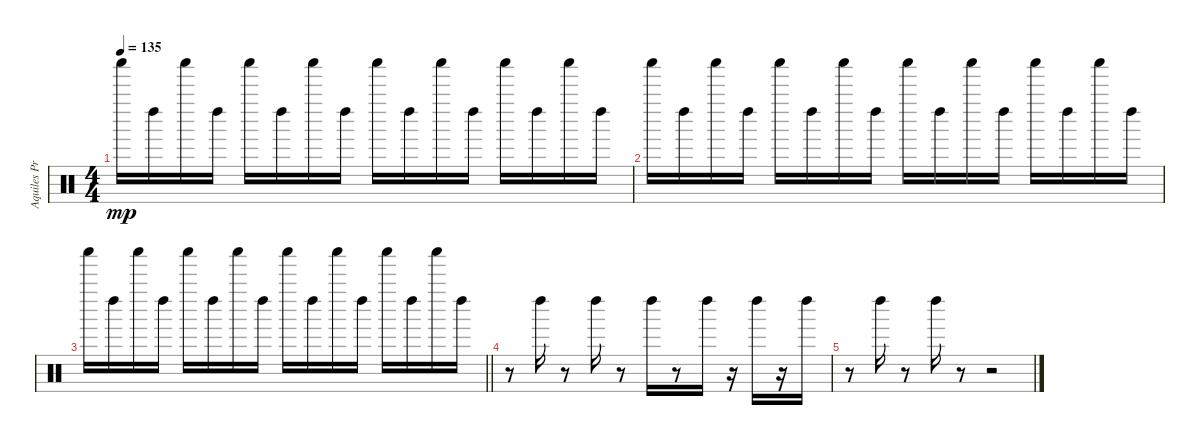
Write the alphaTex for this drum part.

\track ("Aquiles Priester" "Aquiles Pr") {instrument percussion}
\staff {score}
\articulation defaults
\ts (4 4)
\tempo 135
\clef neutral
\ks c "Shaker (hit)".16{dy mp} "Left Maraca (hit)".16 "Shaker (hit)".16 "Left Maraca (hit)".16 "Shaker (hit)".16 "Left Maraca (hit)".16 "Shaker (hit)".16 "Left Maraca (hit)".16 "Shaker (hit)".16 "Left Maraca (hit)".16 "Shaker (hit)".16 "Left Maraca (hit)".16 "Shaker (hit)".16 "Left Maraca (hit)".16 "Shaker (hit)".16 "Left Maraca (hit)".16
|
"Shaker (hit)".16 "Left Maraca (hit)".16 "Shaker (hit)".16 "Left Maraca (hit)".16 "Shaker (hit)".16 "Left Maraca (hit)".16 "Shaker (hit)".16 "Left Maraca (hit)".16 "Shaker (hit)".16 "Left Maraca (hit)".16 "Shaker (hit)".16 "Left Maraca (hit)".16 "Shaker (hit)".16 "Left Maraca (hit)".16 "Shaker (hit)".16 "Left Maraca (hit)".16 |
\barLineRight lightlight "Shaker (hit)".16 "Left Maraca (hit)".16 "Shaker (hit)".16 "Left Maraca (hit)".16 "Shaker (hit)".16 "Left Maraca (hit)".16 "Shaker (hit)".16 "Left Maraca (hit)".16 "Shaker (hit)".16 "Left Maraca (hit)".16 "Shaker (hit)".16 "Left Maraca (hit)".16 "Shaker (hit)".16 "Left Maraca (hit)".16 "Shaker (hit)".16 "Left Maraca (hit)".16
|
r.8 "Left Maraca (hit)".16 r.8 "Left Maraca (hit)".16 r.8 "Left Maraca (hit)".16 r.8 "Left Maraca (hit)".16 r.16 "Left Maraca (hit)".16 r.16 "Left Maraca (hit)".16 |
r.8 "Left Maraca (hit)".16 r.8 "Left Maraca (hit)".16 r.8 r.2
